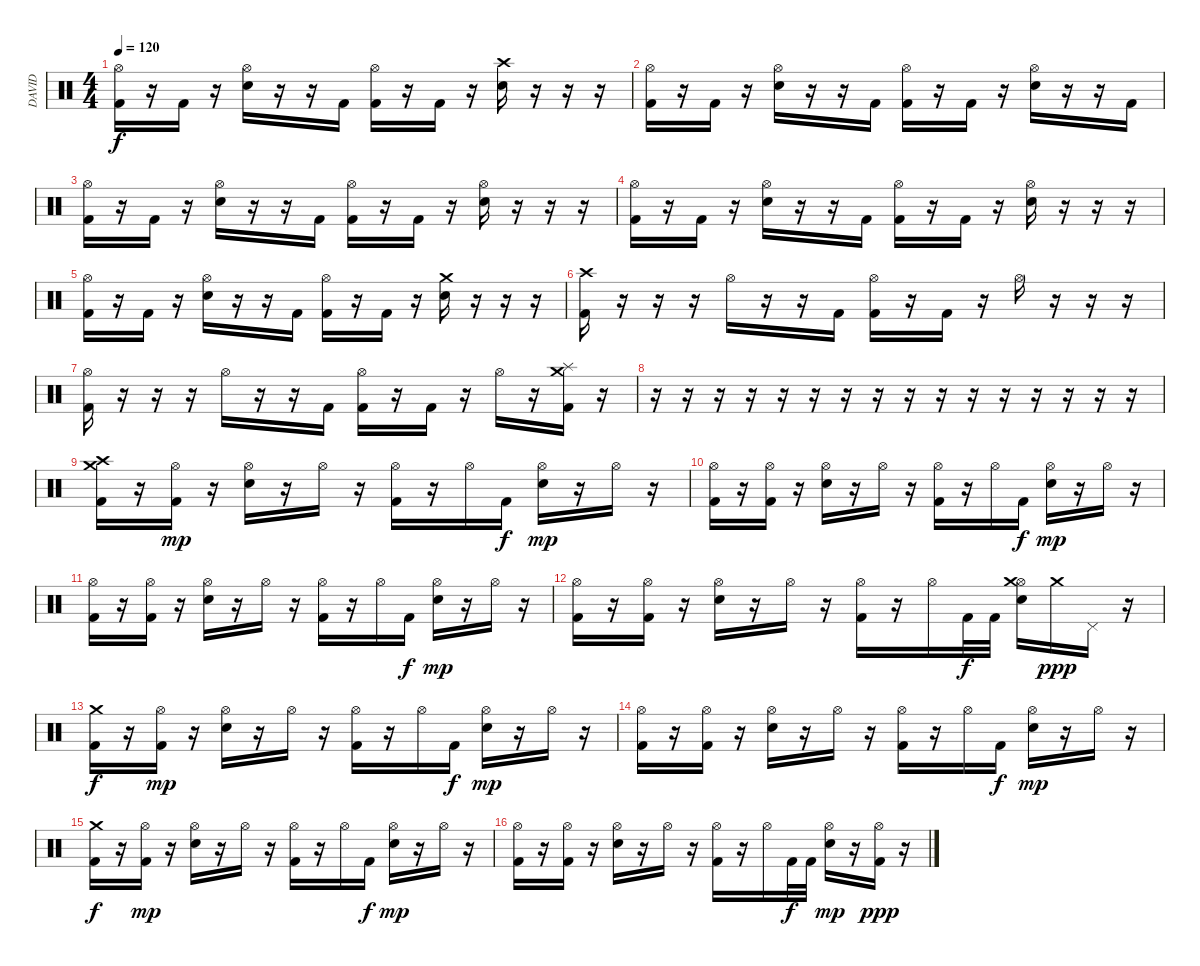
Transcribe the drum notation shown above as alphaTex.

\track ("DAVID" "DAVID") {instrument percussion}
\staff {score}
\articulation defaults
\ts (4 4)
\tempo 120
\clef neutral
\ks c
("Hi-Hat (open)" "Kick (hit) 2").16{dy f} r.16 "Kick (hit) 2".16 r.16 ("Hi-Hat (open)" "Snare (hit) 2").16 r.16 r.16 "Kick (hit) 2".16 ("Hi-Hat (open)" "Kick (hit) 2").16 r.16 "Kick (hit) 2".16 r.16 ("Crash high (hit)" "Snare (hit) 2").16 r.16 r.16 r.16 |
("Hi-Hat (open)" "Kick (hit) 2").16 r.16 "Kick (hit) 2".16 r.16 ("Hi-Hat (open)" "Snare (hit) 2").16 r.16 r.16 "Kick (hit) 2".16 ("Hi-Hat (open)" "Kick (hit) 2").16 r.16 "Kick (hit) 2".16 r.16 ("Hi-Hat (open)" "Snare (hit) 2").16 r.16 r.16 "Kick (hit) 2".16 |
("Hi-Hat (open)" "Kick (hit) 2").16 r.16 "Kick (hit) 2".16 r.16 ("Hi-Hat (open)" "Snare (hit) 2").16 r.16 r.16 "Kick (hit) 2".16 ("Hi-Hat (open)" "Kick (hit) 2").16 r.16 "Kick (hit) 2".16 r.16 ("Hi-Hat (open)" "Snare (hit) 2").16 r.16 r.16 r.16 |
("Hi-Hat (open)" "Kick (hit) 2").16 r.16 "Kick (hit) 2".16 r.16 ("Hi-Hat (open)" "Snare (hit) 2").16 r.16 r.16 "Kick (hit) 2".16 ("Hi-Hat (open)" "Kick (hit) 2").16 r.16 "Kick (hit) 2".16 r.16 ("Hi-Hat (open)" "Snare (hit) 2").16 r.16 r.16 r.16 |
("Hi-Hat (open)" "Kick (hit) 2").16 r.16 "Kick (hit) 2".16 r.16 ("Hi-Hat (open)" "Snare (hit) 2").16 r.16 r.16 "Kick (hit) 2".16 ("Hi-Hat (open)" "Kick (hit) 2").16 r.16 "Kick (hit) 2".16 r.16 ("Crash medium (hit)" "Snare (hit) 2").16 r.16 r.16 r.16 |
("Crash high (hit)" "Kick (hit) 2").16 r.16 r.16 r.16 "Hi-Hat (open)".16 r.16 r.16 "Kick (hit) 2".16 ("Hi-Hat (open)" "Kick (hit) 2").16 r.16 "Kick (hit) 2".16 r.16 "Hi-Hat (open)".16 r.16 r.16 r.16 |
("Hi-Hat (open)" "Kick (hit) 2").16 r.16 r.16 r.16 "Hi-Hat (open)".16 r.16 r.16 "Kick (hit) 2".16 ("Hi-Hat (open)" "Kick (hit) 2").16 r.16 "Kick (hit) 2".16 r.16 "Hi-Hat (open)".16 r.16 ("Crash medium (hit)" "Splash (hit)" "Kick (hit) 2").16 r.16 |
r.16 r.16 r.16 r.16 r.16 r.16 r.16 r.16 r.16 r.16 r.16 r.16 r.16 r.16 r.16 r.16 |
("Crash medium (hit)" "Crash high (hit)" "Kick (hit) 2").16 r.16 ("Hi-Hat (open)" "Kick (hit) 2").16{dy mp} r.16 ("Hi-Hat (open)" "Snare (hit) 2").16 r.16 "Hi-Hat (open)".16 r.16 ("Hi-Hat (open)" "Kick (hit) 2").16 r.16 "Hi-Hat (open)".16 "Kick (hit) 2".16{dy f} ("Hi-Hat (open)" "Snare (hit) 2").16{dy mp} r.16 "Hi-Hat (open)".16 r.16 |
("Hi-Hat (open)" "Kick (hit) 2").16 r.16 ("Hi-Hat (open)" "Kick (hit) 2").16 r.16 ("Hi-Hat (open)" "Snare (hit) 2").16 r.16 "Hi-Hat (open)".16 r.16 ("Hi-Hat (open)" "Kick (hit) 2").16 r.16 "Hi-Hat (open)".16 "Kick (hit) 2".16{dy f} ("Hi-Hat (open)" "Snare (hit) 2").16{dy mp} r.16 "Hi-Hat (open)".16 r.16 |
("Hi-Hat (open)" "Kick (hit) 2").16 r.16 ("Hi-Hat (open)" "Kick (hit) 2").16 r.16 ("Hi-Hat (open)" "Snare (hit) 2").16 r.16 "Hi-Hat (open)".16 r.16 ("Hi-Hat (open)" "Kick (hit) 2").16 r.16 "Hi-Hat (open)".16 "Kick (hit) 2".16{dy f} ("Hi-Hat (open)" "Snare (hit) 2").16{dy mp} r.16 "Hi-Hat (open)".16 r.16 |
("Hi-Hat (open)" "Kick (hit) 2").16 r.16 ("Hi-Hat (open)" "Kick (hit) 2").16 r.16 ("Hi-Hat (open)" "Snare (hit) 2").16 r.16 "Hi-Hat (open)".16 r.16 ("Hi-Hat (open)" "Kick (hit) 2").16 r.16 "Hi-Hat (open)".16 "Kick (hit) 2".32{dy f} "Kick (hit) 2".32 ("Hi-Hat (open)" "Crash medium (hit)" "Snare (hit) 2").16 "Crash medium (hit)".16{dy ppp} "Pedal Hi-Hat (hit)".16 r.16 |
("Crash medium (hit)" "Kick (hit) 2").16{dy f} r.16 ("Hi-Hat (open)" "Kick (hit) 2").16{dy mp} r.16 ("Hi-Hat (open)" "Snare (hit) 2").16 r.16 "Hi-Hat (open)".16 r.16 ("Hi-Hat (open)" "Kick (hit) 2").16 r.16 "Hi-Hat (open)".16 "Kick (hit) 2".16{dy f} ("Hi-Hat (open)" "Snare (hit) 2").16{dy mp} r.16 "Hi-Hat (open)".16 r.16 |
("Hi-Hat (open)" "Kick (hit) 2").16 r.16 ("Hi-Hat (open)" "Kick (hit) 2").16 r.16 ("Hi-Hat (open)" "Snare (hit) 2").16 r.16 "Hi-Hat (open)".16 r.16 ("Hi-Hat (open)" "Kick (hit) 2").16 r.16 "Hi-Hat (open)".16 "Kick (hit) 2".16{dy f} ("Hi-Hat (open)" "Snare (hit) 2").16{dy mp} r.16 "Hi-Hat (open)".16 r.16 |
("Crash medium (hit)" "Kick (hit) 2").16{dy f} r.16 ("Hi-Hat (open)" "Kick (hit) 2").16{dy mp} r.16 ("Hi-Hat (open)" "Snare (hit) 2").16 r.16 "Hi-Hat (open)".16 r.16 ("Hi-Hat (open)" "Kick (hit) 2").16 r.16 "Hi-Hat (open)".16 "Kick (hit) 2".16{dy f} ("Hi-Hat (open)" "Snare (hit) 2").16{dy mp} r.16 "Hi-Hat (open)".16 r.16 |
("Hi-Hat (open)" "Kick (hit) 2").16 r.16 ("Hi-Hat (open)" "Kick (hit) 2").16 r.16 ("Hi-Hat (open)" "Snare (hit) 2").16 r.16 "Hi-Hat (open)".16 r.16 ("Hi-Hat (open)" "Kick (hit) 2").16 r.16 "Hi-Hat (open)".16 "Kick (hit) 2".32{dy f} "Kick (hit) 2".32 ("Hi-Hat (open)" "Snare (hit) 2").16{dy mp} r.16 ("Hi-Hat (open)" "Kick (hit) 2").16{dy ppp} r.16
